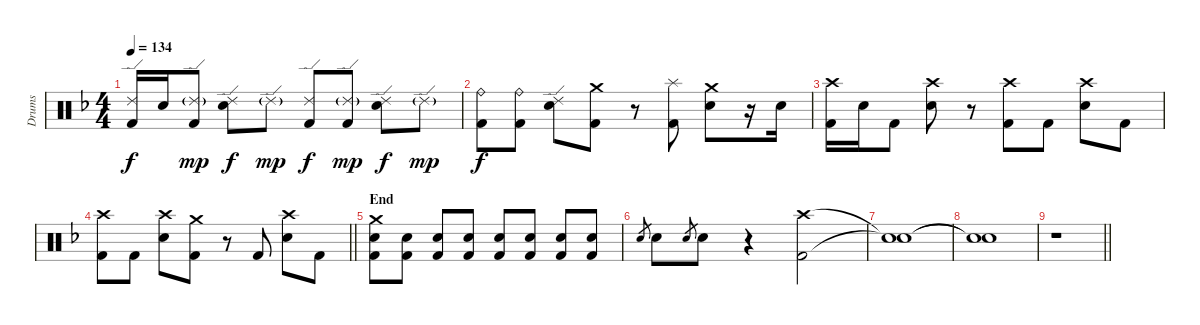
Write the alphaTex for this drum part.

\track ("Drums" "Drums") {instrument percussion}
\staff {score}
\articulation defaults
\ts (4 4)
\tempo 134
\clef neutral
\ks f
("Ride (edge) 2" "Kick (hit) 2").16{dy f} "Electric Snare (hit)".16 ("Ride (edge) 2"{g} "Kick (hit) 2").8{dy mp} ("Ride (edge) 2" "Electric Snare (hit)").8{dy f} "Ride (edge) 2"{g}.8{dy mp} ("Ride (edge) 2" "Kick (hit) 2").8{dy f} ("Ride (edge) 2"{g} "Kick (hit) 2").8{dy mp} ("Ride (edge) 2" "Electric Snare (hit)").8{dy f} "Ride (edge) 2"{g}.8{dy mp} |
("Ride (bell)" "Kick (hit) 2").8{dy f} ("Ride (bell)" "Kick (hit) 2").8 ("Ride (edge) 2" "Electric Snare (hit)").8 ("Crash medium (hit)" "Kick (hit) 2").8 r.8 ("Splash (hit)" "Kick (hit) 2").8 ("Crash medium (hit)" "Electric Snare (hit)").8 r.16 "Electric Snare (hit)".16 |
("Crash high (hit)" "Kick (hit) 2").16 "Electric Snare (hit)".16 "Kick (hit) 2".8 ("Crash high (hit)" "Electric Snare (hit)").8 r.8 ("Crash high (hit)" "Kick (hit) 2").8 "Kick (hit) 2".8 ("Crash high (hit)" "Electric Snare (hit)").8 "Kick (hit) 2".8 |
\barLineRight lightlight
("Crash high (hit)" "Kick (hit) 2").8 "Kick (hit) 2".8 ("Crash high (hit)" "Electric Snare (hit)").8 ("Crash medium (hit)" "Kick (hit) 2").8 r.8 "Kick (hit) 2".8 ("Crash high (hit)" "Electric Snare (hit)").8 "Kick (hit) 2".8 |
\section ("" "End")
("Crash medium (hit)" "Electric Snare (hit)" "Kick (hit) 2").8 ("Electric Snare (hit)" "Kick (hit) 2").8 ("Electric Snare (hit)" "Kick (hit) 2").8 ("Electric Snare (hit)" "Kick (hit) 2").8 ("Electric Snare (hit)" "Kick (hit) 2").8 ("Electric Snare (hit)" "Kick (hit) 2").8 ("Electric Snare (hit)" "Kick (hit) 2").8 ("Electric Snare (hit)" "Kick (hit) 2").8 |
"Electric Snare (hit)".8{gr} "Electric Snare (hit)".8 "Electric Snare (hit)".8{gr} "Electric Snare (hit)".8 r.4 ("Crash high (hit)" "Kick (hit) 2").2 |
("Snare (hit)"{t} "Snare (hit)"{t}).1 |
("Snare (hit)"{t} "Snare (hit)"{t}).1 |
\barLineRight lightlight
r.1
